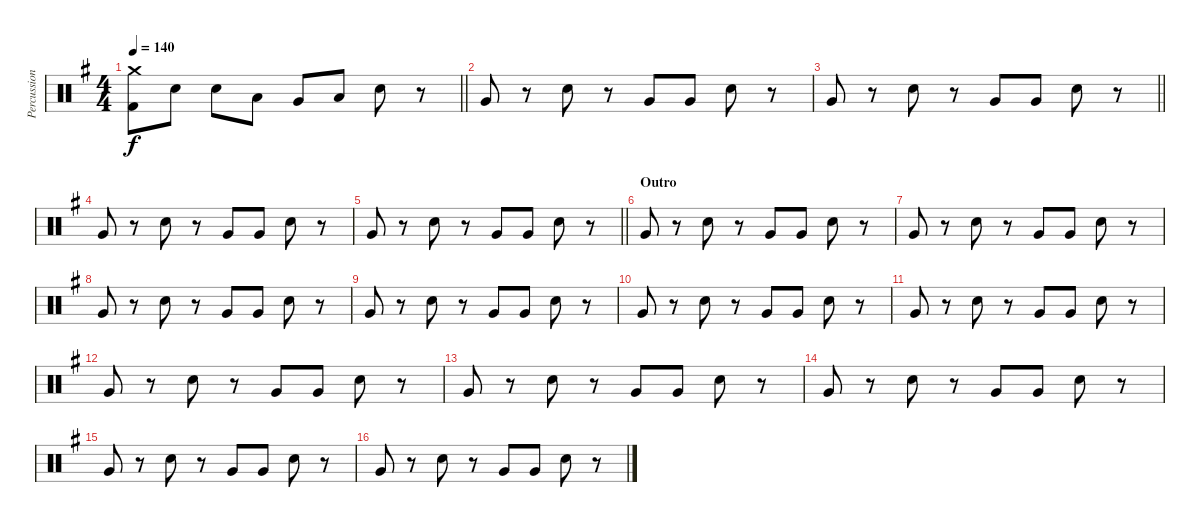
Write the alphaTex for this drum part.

\track ("Percussion" "Percussion") {instrument percussion}
\staff {score}
\articulation defaults
\ts (4 4)
\tempo 140
\clef neutral
\barLineRight lightlight
\ks g
("Crash medium (hit)" "Kick (hit) 2").8{dy f} "Electric Snare (hit)".8 "Electric Snare (hit)".8 "Low Tom (hit)".8 "Very Low Tom (hit)".8 "Low Tom (hit)".8 "Electric Snare (hit)".8 r.8 |
"Very Low Tom (hit)".8 r.8 "Electric Snare (hit)".8 r.8 "Very Low Tom (hit)".8 "Very Low Tom (hit)".8 "Electric Snare (hit)".8 r.8 |
\barLineRight lightlight "Very Low Tom (hit)".8
r.8 "Electric Snare (hit)".8 r.8 "Very Low Tom (hit)".8 "Very Low Tom (hit)".8 "Electric Snare (hit)".8 r.8 |
"Very Low Tom (hit)".8 r.8 "Electric Snare (hit)".8 r.8 "Very Low Tom (hit)".8 "Very Low Tom (hit)".8 "Electric Snare (hit)".8 r.8 |
\barLineRight lightlight "Very Low Tom (hit)".8
r.8 "Electric Snare (hit)".8 r.8 "Very Low Tom (hit)".8 "Very Low Tom (hit)".8 "Electric Snare (hit)".8 r.8 |
\section ("" "Outro")
"Very Low Tom (hit)".8 r.8 "Electric Snare (hit)".8 r.8 "Very Low Tom (hit)".8 "Very Low Tom (hit)".8 "Electric Snare (hit)".8 r.8 |
"Very Low Tom (hit)".8 r.8 "Electric Snare (hit)".8 r.8 "Very Low Tom (hit)".8 "Very Low Tom (hit)".8 "Electric Snare (hit)".8 r.8 |
"Very Low Tom (hit)".8 r.8 "Electric Snare (hit)".8 r.8 "Very Low Tom (hit)".8 "Very Low Tom (hit)".8 "Electric Snare (hit)".8 r.8 |
"Very Low Tom (hit)".8 r.8 "Electric Snare (hit)".8 r.8 "Very Low Tom (hit)".8 "Very Low Tom (hit)".8 "Electric Snare (hit)".8 r.8 |
"Very Low Tom (hit)".8 r.8 "Electric Snare (hit)".8 r.8 "Very Low Tom (hit)".8 "Very Low Tom (hit)".8 "Electric Snare (hit)".8 r.8 |
"Very Low Tom (hit)".8 r.8 "Electric Snare (hit)".8 r.8 "Very Low Tom (hit)".8 "Very Low Tom (hit)".8 "Electric Snare (hit)".8 r.8 |
"Very Low Tom (hit)".8 r.8 "Electric Snare (hit)".8 r.8 "Very Low Tom (hit)".8 "Very Low Tom (hit)".8 "Electric Snare (hit)".8 r.8 |
"Very Low Tom (hit)".8 r.8 "Electric Snare (hit)".8 r.8 "Very Low Tom (hit)".8 "Very Low Tom (hit)".8 "Electric Snare (hit)".8 r.8 |
"Very Low Tom (hit)".8 r.8 "Electric Snare (hit)".8 r.8 "Very Low Tom (hit)".8 "Very Low Tom (hit)".8 "Electric Snare (hit)".8 r.8 |
"Very Low Tom (hit)".8 r.8 "Electric Snare (hit)".8 r.8 "Very Low Tom (hit)".8 "Very Low Tom (hit)".8 "Electric Snare (hit)".8 r.8 |
"Very Low Tom (hit)".8 r.8 "Electric Snare (hit)".8 r.8 "Very Low Tom (hit)".8 "Very Low Tom (hit)".8 "Electric Snare (hit)".8 r.8
